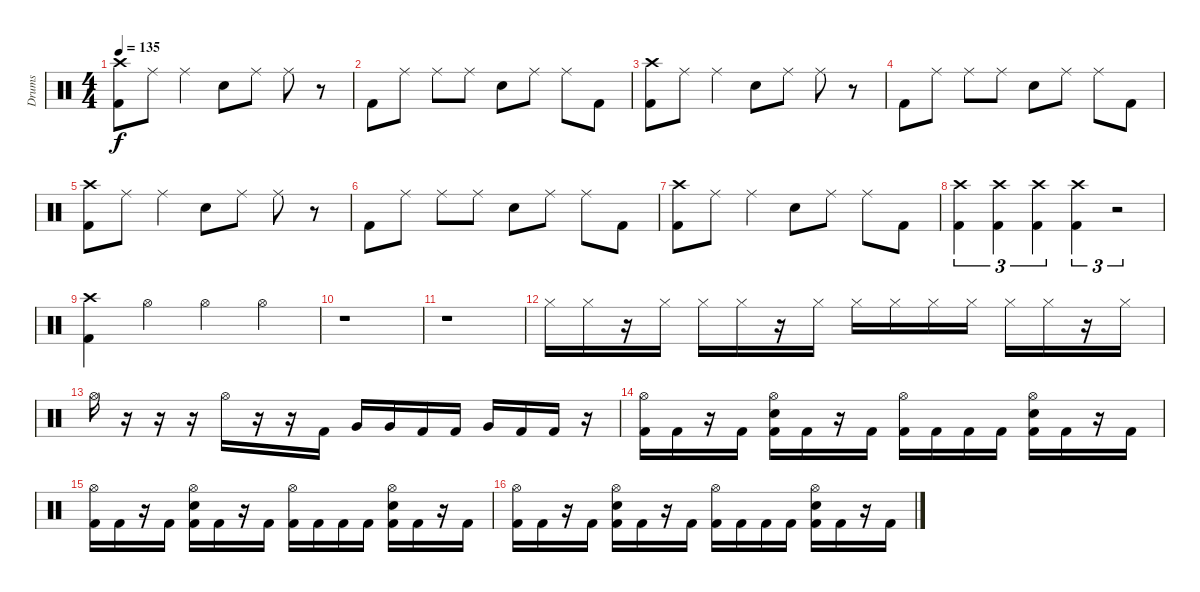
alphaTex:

\track ("Drums" "Drums") {instrument percussion}
\staff {score}
\articulation defaults
\ts (4 4)
\tempo 135
\clef neutral
\ks c
("Crash high (hit)" "Kick (hit) 2").8{dy f} "Ride (middle)".8 "Ride (middle)".4 "Electric Snare (hit)".8 "Ride (middle)".8 "Ride (middle)".8 r.8 |
"Kick (hit) 2".8 "Ride (middle)".8 "Ride (middle)".8 "Ride (middle)".8 "Electric Snare (hit)".8 "Ride (middle)".8 "Ride (middle)".8 "Kick (hit) 2".8 |
("Crash high (hit)" "Kick (hit) 2").8 "Ride (middle)".8 "Ride (middle)".4 "Electric Snare (hit)".8 "Ride (middle)".8 "Ride (middle)".8 r.8 |
"Kick (hit) 2".8 "Ride (middle)".8 "Ride (middle)".8 "Ride (middle)".8 "Electric Snare (hit)".8 "Ride (middle)".8 "Ride (middle)".8 "Kick (hit) 2".8 |
("Crash high (hit)" "Kick (hit) 2").8 "Ride (middle)".8 "Ride (middle)".4 "Electric Snare (hit)".8 "Ride (middle)".8 "Ride (middle)".8 r.8 |
"Kick (hit) 2".8 "Ride (middle)".8 "Ride (middle)".8 "Ride (middle)".8 "Electric Snare (hit)".8 "Ride (middle)".8 "Ride (middle)".8 "Kick (hit) 2".8 |
("Crash high (hit)" "Kick (hit) 2").8 "Ride (middle)".8 "Ride (middle)".4 "Electric Snare (hit)".8 "Ride (middle)".8 "Ride (middle)".8 "Kick (hit) 2".8 |
("Crash high (hit)" "Kick (hit) 2").4{tu (3 2)} ("Crash high (hit)" "Kick (hit) 2").4{tu (3 2)} ("Crash high (hit)" "Kick (hit) 2").4{tu (3 2)} ("Crash high (hit)" "Kick (hit) 2").4{tu (3 2)} r.2{tu (3 2)} |
("Crash high (hit)" "Kick (hit) 2").4 "Hi-Hat (open)".4 "Hi-Hat (open)".4 "Hi-Hat (open)".4 |
r.1 |
r.1 |
"Hi-Hat (closed)".16 "Hi-Hat (closed)".16 r.16 "Hi-Hat (closed)".16 "Hi-Hat (closed)".16 "Hi-Hat (closed)".16 r.16 "Hi-Hat (closed)".16 "Hi-Hat (closed)".16 "Hi-Hat (closed)".16 "Hi-Hat (closed)".16 "Hi-Hat (closed)".16 "Hi-Hat (closed)".16 "Hi-Hat (closed)".16 r.16 "Hi-Hat (closed)".16 |
"Hi-Hat (open)".16 r.16 r.16 r.16 "Hi-Hat (open)".16 r.16 r.16 "Kick (hit) 2".16 "Very Low Tom (hit)".16 "Very Low Tom (hit)".16 "Kick (hit) 2".16 "Kick (hit) 2".16 "Very Low Tom (hit)".16 "Kick (hit) 2".16 "Kick (hit) 2".16 r.16 |
("Hi-Hat (open)" "Kick (hit) 2").16 "Kick (hit) 2".16 r.16 "Kick (hit) 2".16 ("Hi-Hat (open)" "Electric Snare (hit)" "Kick (hit) 2").16 "Kick (hit) 2".16 r.16 "Kick (hit) 2".16 ("Hi-Hat (open)" "Kick (hit) 2").16 "Kick (hit) 2".16 "Kick (hit) 2".16 "Kick (hit) 2".16 ("Hi-Hat (open)" "Electric Snare (hit)" "Kick (hit) 2").16 "Kick (hit) 2".16 r.16 "Kick (hit) 2".16 |
("Hi-Hat (open)" "Kick (hit) 2").16 "Kick (hit) 2".16 r.16 "Kick (hit) 2".16 ("Hi-Hat (open)" "Electric Snare (hit)" "Kick (hit) 2").16 "Kick (hit) 2".16 r.16 "Kick (hit) 2".16 ("Hi-Hat (open)" "Kick (hit) 2").16 "Kick (hit) 2".16 "Kick (hit) 2".16 "Kick (hit) 2".16 ("Hi-Hat (open)" "Electric Snare (hit)" "Kick (hit) 2").16 "Kick (hit) 2".16 r.16 "Kick (hit) 2".16 |
("Hi-Hat (open)" "Kick (hit) 2").16 "Kick (hit) 2".16 r.16 "Kick (hit) 2".16 ("Hi-Hat (open)" "Electric Snare (hit)" "Kick (hit) 2").16 "Kick (hit) 2".16 r.16 "Kick (hit) 2".16 ("Hi-Hat (open)" "Kick (hit) 2").16 "Kick (hit) 2".16 "Kick (hit) 2".16 "Kick (hit) 2".16 ("Hi-Hat (open)" "Electric Snare (hit)" "Kick (hit) 2").16 "Kick (hit) 2".16 r.16 "Kick (hit) 2".16
